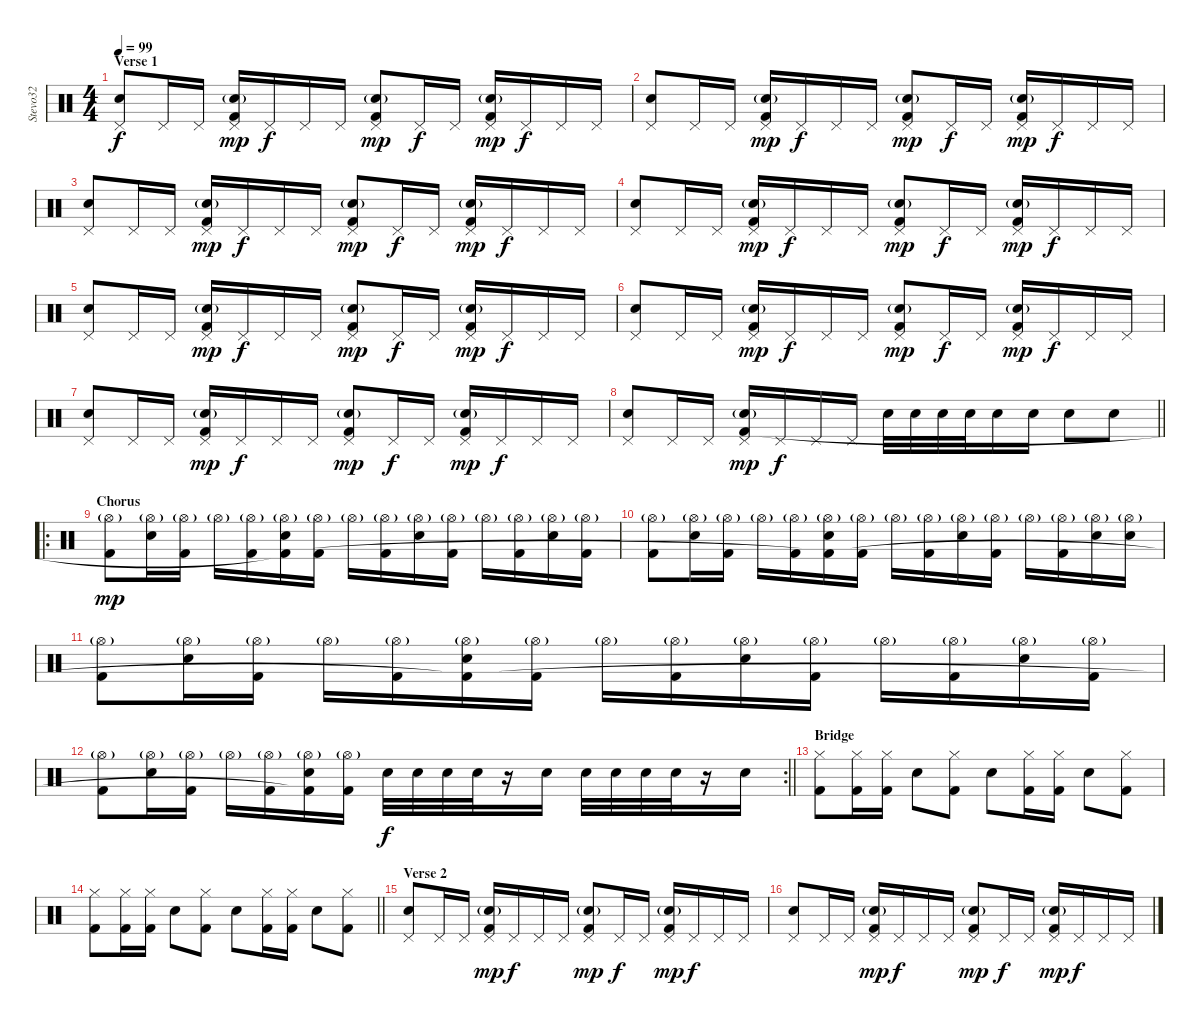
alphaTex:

\track ("Stevo32" "Stevo32") {instrument percussion}
\staff {score}
\articulation defaults
\ts (4 4)
\section ("" "Verse 1")
\tempo 99
\clef neutral
\ks c
("Pedal Hi-Hat (hit)" "Electric Snare (hit)").8{dy f} "Pedal Hi-Hat (hit)".16 "Pedal Hi-Hat (hit)".16 ("Pedal Hi-Hat (hit)" "Electric Snare (hit)"{g} "Kick (hit) 2").16{dy mp} "Pedal Hi-Hat (hit)".16{dy f} "Pedal Hi-Hat (hit)".16 "Pedal Hi-Hat (hit)".16 ("Pedal Hi-Hat (hit)" "Electric Snare (hit)"{g} "Kick (hit) 2").8{dy mp} "Pedal Hi-Hat (hit)".16{dy f} "Pedal Hi-Hat (hit)".16 ("Pedal Hi-Hat (hit)" "Electric Snare (hit)"{g} "Kick (hit) 2").16{dy mp} "Pedal Hi-Hat (hit)".16{dy f} "Pedal Hi-Hat (hit)".16 "Pedal Hi-Hat (hit)".16 |
("Pedal Hi-Hat (hit)" "Electric Snare (hit)").8 "Pedal Hi-Hat (hit)".16 "Pedal Hi-Hat (hit)".16 ("Pedal Hi-Hat (hit)" "Electric Snare (hit)"{g} "Kick (hit) 2").16{dy mp} "Pedal Hi-Hat (hit)".16{dy f} "Pedal Hi-Hat (hit)".16 "Pedal Hi-Hat (hit)".16 ("Pedal Hi-Hat (hit)" "Electric Snare (hit)"{g} "Kick (hit) 2").8{dy mp} "Pedal Hi-Hat (hit)".16{dy f} "Pedal Hi-Hat (hit)".16 ("Pedal Hi-Hat (hit)" "Electric Snare (hit)"{g} "Kick (hit) 2").16{dy mp} "Pedal Hi-Hat (hit)".16{dy f} "Pedal Hi-Hat (hit)".16 "Pedal Hi-Hat (hit)".16 |
("Pedal Hi-Hat (hit)" "Electric Snare (hit)").8 "Pedal Hi-Hat (hit)".16 "Pedal Hi-Hat (hit)".16 ("Pedal Hi-Hat (hit)" "Electric Snare (hit)"{g} "Kick (hit) 2").16{dy mp} "Pedal Hi-Hat (hit)".16{dy f} "Pedal Hi-Hat (hit)".16 "Pedal Hi-Hat (hit)".16 ("Pedal Hi-Hat (hit)" "Electric Snare (hit)"{g} "Kick (hit) 2").8{dy mp} "Pedal Hi-Hat (hit)".16{dy f} "Pedal Hi-Hat (hit)".16 ("Pedal Hi-Hat (hit)" "Electric Snare (hit)"{g} "Kick (hit) 2").16{dy mp} "Pedal Hi-Hat (hit)".16{dy f} "Pedal Hi-Hat (hit)".16 "Pedal Hi-Hat (hit)".16 |
("Pedal Hi-Hat (hit)" "Electric Snare (hit)").8 "Pedal Hi-Hat (hit)".16 "Pedal Hi-Hat (hit)".16 ("Pedal Hi-Hat (hit)" "Electric Snare (hit)"{g} "Kick (hit) 2").16{dy mp} "Pedal Hi-Hat (hit)".16{dy f} "Pedal Hi-Hat (hit)".16 "Pedal Hi-Hat (hit)".16 ("Pedal Hi-Hat (hit)" "Electric Snare (hit)"{g} "Kick (hit) 2").8{dy mp} "Pedal Hi-Hat (hit)".16{dy f} "Pedal Hi-Hat (hit)".16 ("Pedal Hi-Hat (hit)" "Electric Snare (hit)"{g} "Kick (hit) 2").16{dy mp} "Pedal Hi-Hat (hit)".16{dy f} "Pedal Hi-Hat (hit)".16 "Pedal Hi-Hat (hit)".16 |
("Pedal Hi-Hat (hit)" "Electric Snare (hit)").8 "Pedal Hi-Hat (hit)".16 "Pedal Hi-Hat (hit)".16 ("Pedal Hi-Hat (hit)" "Electric Snare (hit)"{g} "Kick (hit) 2").16{dy mp} "Pedal Hi-Hat (hit)".16{dy f} "Pedal Hi-Hat (hit)".16 "Pedal Hi-Hat (hit)".16 ("Pedal Hi-Hat (hit)" "Electric Snare (hit)"{g} "Kick (hit) 2").8{dy mp} "Pedal Hi-Hat (hit)".16{dy f} "Pedal Hi-Hat (hit)".16 ("Pedal Hi-Hat (hit)" "Electric Snare (hit)"{g} "Kick (hit) 2").16{dy mp} "Pedal Hi-Hat (hit)".16{dy f} "Pedal Hi-Hat (hit)".16 "Pedal Hi-Hat (hit)".16 |
("Pedal Hi-Hat (hit)" "Electric Snare (hit)").8 "Pedal Hi-Hat (hit)".16 "Pedal Hi-Hat (hit)".16 ("Pedal Hi-Hat (hit)" "Electric Snare (hit)"{g} "Kick (hit) 2").16{dy mp} "Pedal Hi-Hat (hit)".16{dy f} "Pedal Hi-Hat (hit)".16 "Pedal Hi-Hat (hit)".16 ("Pedal Hi-Hat (hit)" "Electric Snare (hit)"{g} "Kick (hit) 2").8{dy mp} "Pedal Hi-Hat (hit)".16{dy f} "Pedal Hi-Hat (hit)".16 ("Pedal Hi-Hat (hit)" "Electric Snare (hit)"{g} "Kick (hit) 2").16{dy mp} "Pedal Hi-Hat (hit)".16{dy f} "Pedal Hi-Hat (hit)".16 "Pedal Hi-Hat (hit)".16 |
("Pedal Hi-Hat (hit)" "Electric Snare (hit)").8 "Pedal Hi-Hat (hit)".16 "Pedal Hi-Hat (hit)".16 ("Pedal Hi-Hat (hit)" "Electric Snare (hit)"{g} "Kick (hit) 2").16{dy mp} "Pedal Hi-Hat (hit)".16{dy f} "Pedal Hi-Hat (hit)".16 "Pedal Hi-Hat (hit)".16 ("Pedal Hi-Hat (hit)" "Electric Snare (hit)"{g} "Kick (hit) 2").8{dy mp} "Pedal Hi-Hat (hit)".16{dy f} "Pedal Hi-Hat (hit)".16 ("Pedal Hi-Hat (hit)" "Electric Snare (hit)"{g} "Kick (hit) 2").16{dy mp} "Pedal Hi-Hat (hit)".16{dy f} "Pedal Hi-Hat (hit)".16 "Pedal Hi-Hat (hit)".16 |
\barLineRight lightlight
("Pedal Hi-Hat (hit)" "Electric Snare (hit)").8 "Pedal Hi-Hat (hit)".16 "Pedal Hi-Hat (hit)".16 ("Pedal Hi-Hat (hit)" "Electric Snare (hit)"{g} "Kick (hit) 2").16{dy mp} "Pedal Hi-Hat (hit)".16{dy f} "Pedal Hi-Hat (hit)".16 "Pedal Hi-Hat (hit)".16 "Electric Snare (hit)".32 "Electric Snare (hit)".32 "Electric Snare (hit)".32 "Electric Snare (hit)".32 "Electric Snare (hit)".16 "Electric Snare (hit)".16 "Electric Snare (hit)".8 "Electric Snare (hit)".8 |
\ro
\section ("" "Chorus")
("Hi-Hat (open)"{g} "Kick (hit) 2").8{dy mp} ("Hi-Hat (open)"{g} "Electric Snare (hit)").16 ("Hi-Hat (open)"{g} "Kick (hit) 2").16 "Hi-Hat (open)"{g}.16 ("Hi-Hat (open)"{g} "Kick (hit) 2").16 ("Hi-Hat (open)"{g} "Electric Snare (hit)" "Kick (hit) 2"{t}).16 ("Hi-Hat (open)"{g} "Kick (hit) 2").16 "Hi-Hat (open)"{g}.16 ("Hi-Hat (open)"{g} "Kick (hit) 2").16 ("Hi-Hat (open)"{g} "Electric Snare (hit)").16 ("Hi-Hat (open)"{g} "Kick (hit) 2").16 "Hi-Hat (open)"{g}.16 ("Hi-Hat (open)"{g} "Kick (hit) 2").16 ("Hi-Hat (open)"{g} "Electric Snare (hit)").16 ("Hi-Hat (open)"{g} "Kick (hit) 2").16 |
("Hi-Hat (open)"{g} "Kick (hit) 2").8 ("Hi-Hat (open)"{g} "Electric Snare (hit)").16 ("Hi-Hat (open)"{g} "Kick (hit) 2").16 "Hi-Hat (open)"{g}.16 ("Hi-Hat (open)"{g} "Kick (hit) 2").16 ("Hi-Hat (open)"{g} "Electric Snare (hit)" "Kick (hit) 2"{t}).16 ("Hi-Hat (open)"{g} "Kick (hit) 2").16 "Hi-Hat (open)"{g}.16 ("Hi-Hat (open)"{g} "Kick (hit) 2").16 ("Hi-Hat (open)"{g} "Electric Snare (hit)").16 ("Hi-Hat (open)"{g} "Kick (hit) 2").16 "Hi-Hat (open)"{g}.16 ("Hi-Hat (open)"{g} "Kick (hit) 2").16 ("Hi-Hat (open)"{g} "Electric Snare (hit)").16 ("Hi-Hat (open)"{g} "Electric Snare (hit)").16 |
("Hi-Hat (open)"{g} "Kick (hit) 2").8 ("Hi-Hat (open)"{g} "Electric Snare (hit)").16 ("Hi-Hat (open)"{g} "Kick (hit) 2").16 "Hi-Hat (open)"{g}.16 ("Hi-Hat (open)"{g} "Kick (hit) 2").16 ("Hi-Hat (open)"{g} "Electric Snare (hit)" "Kick (hit) 2"{t}).16 ("Hi-Hat (open)"{g} "Kick (hit) 2").16 "Hi-Hat (open)"{g}.16 ("Hi-Hat (open)"{g} "Kick (hit) 2").16 ("Hi-Hat (open)"{g} "Electric Snare (hit)").16 ("Hi-Hat (open)"{g} "Kick (hit) 2").16 "Hi-Hat (open)"{g}.16 ("Hi-Hat (open)"{g} "Kick (hit) 2").16 ("Hi-Hat (open)"{g} "Electric Snare (hit)").16 ("Hi-Hat (open)"{g} "Kick (hit) 2").16 |
\rc 2
\barLineRight lightlight
("Hi-Hat (open)"{g} "Kick (hit) 2").8 ("Hi-Hat (open)"{g} "Electric Snare (hit)").16 ("Hi-Hat (open)"{g} "Kick (hit) 2").16 "Hi-Hat (open)"{g}.16 ("Hi-Hat (open)"{g} "Kick (hit) 2").16 ("Hi-Hat (open)"{g} "Electric Snare (hit)" "Kick (hit) 2"{t}).16 ("Hi-Hat (open)"{g} "Kick (hit) 2").16 "Electric Snare (hit)".32{dy f} "Electric Snare (hit)".32 "Electric Snare (hit)".32 "Electric Snare (hit)".32 r.16 "Electric Snare (hit)".16 "Electric Snare (hit)".32 "Electric Snare (hit)".32 "Electric Snare (hit)".32 "Electric Snare (hit)".32 r.16 "Electric Snare (hit)".16 |
\section ("" "Bridge")
("Hi-Hat (closed)" "Kick (hit) 2").8 ("Hi-Hat (closed)" "Kick (hit) 2").16 ("Hi-Hat (closed)" "Kick (hit) 2").16 "Electric Snare (hit)".8 ("Hi-Hat (closed)" "Kick (hit) 2").8 "Electric Snare (hit)".8 ("Hi-Hat (closed)" "Kick (hit) 2").16 ("Hi-Hat (closed)" "Kick (hit) 2").16 "Electric Snare (hit)".8 ("Hi-Hat (closed)" "Kick (hit) 2").8 |
\barLineRight lightlight
("Hi-Hat (closed)" "Kick (hit) 2").8 ("Hi-Hat (closed)" "Kick (hit) 2").16 ("Hi-Hat (closed)" "Kick (hit) 2").16 "Electric Snare (hit)".8 ("Hi-Hat (closed)" "Kick (hit) 2").8 "Electric Snare (hit)".8 ("Hi-Hat (closed)" "Kick (hit) 2").16 ("Hi-Hat (closed)" "Kick (hit) 2").16 "Electric Snare (hit)".8 ("Hi-Hat (closed)" "Kick (hit) 2").8 |
\section ("" "Verse 2")
("Pedal Hi-Hat (hit)" "Electric Snare (hit)").8 "Pedal Hi-Hat (hit)".16 "Pedal Hi-Hat (hit)".16 ("Pedal Hi-Hat (hit)" "Electric Snare (hit)"{g} "Kick (hit) 2").16{dy mp} "Pedal Hi-Hat (hit)".16{dy f} "Pedal Hi-Hat (hit)".16 "Pedal Hi-Hat (hit)".16 ("Pedal Hi-Hat (hit)" "Electric Snare (hit)"{g} "Kick (hit) 2").8{dy mp} "Pedal Hi-Hat (hit)".16{dy f} "Pedal Hi-Hat (hit)".16 ("Pedal Hi-Hat (hit)" "Electric Snare (hit)"{g} "Kick (hit) 2").16{dy mp} "Pedal Hi-Hat (hit)".16{dy f} "Pedal Hi-Hat (hit)".16 "Pedal Hi-Hat (hit)".16 |
("Pedal Hi-Hat (hit)" "Electric Snare (hit)").8 "Pedal Hi-Hat (hit)".16 "Pedal Hi-Hat (hit)".16 ("Pedal Hi-Hat (hit)" "Electric Snare (hit)"{g} "Kick (hit) 2").16{dy mp} "Pedal Hi-Hat (hit)".16{dy f} "Pedal Hi-Hat (hit)".16 "Pedal Hi-Hat (hit)".16 ("Pedal Hi-Hat (hit)" "Electric Snare (hit)"{g} "Kick (hit) 2").8{dy mp} "Pedal Hi-Hat (hit)".16{dy f} "Pedal Hi-Hat (hit)".16 ("Pedal Hi-Hat (hit)" "Electric Snare (hit)"{g} "Kick (hit) 2").16{dy mp} "Pedal Hi-Hat (hit)".16{dy f} "Pedal Hi-Hat (hit)".16 "Pedal Hi-Hat (hit)".16
